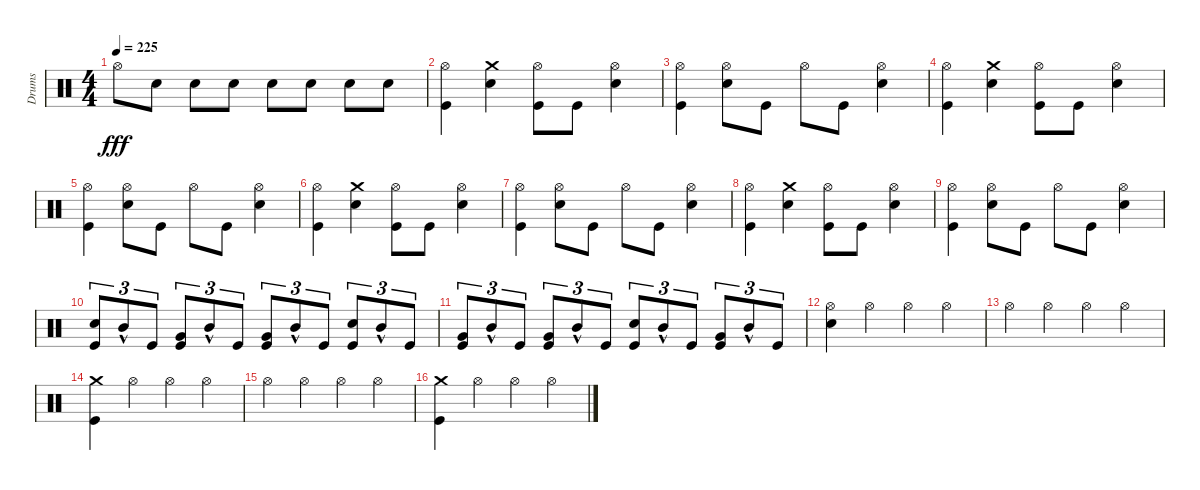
\track ("Drums" "Drums") {instrument percussion}
\staff {score}
\articulation defaults
\ts (4 4)
\tempo 225
\clef neutral
\ks c "Hi-Hat (open)".8{dy fff} "Snare (hit) 2".8 "Snare (hit) 2".8 "Snare (hit) 2".8 "Snare (hit) 2".8 "Snare (hit) 2".8 "Snare (hit) 2".8 "Snare (hit) 2".8
|
("Kick (hit)" "Hi-Hat (open)").4 ("Snare (hit) 2" "Crash medium (hit)").4 ("Kick (hit)" "Hi-Hat (open)").8 "Kick (hit)".8 ("Snare (hit) 2" "Hi-Hat (open)").4 |
("Kick (hit)" "Hi-Hat (open)").4 ("Hi-Hat (open)" "Snare (hit) 2").8 "Kick (hit)".8 "Hi-Hat (open)".8 "Kick (hit)".8 ("Snare (hit) 2" "Hi-Hat (open)").4 |
("Kick (hit)" "Hi-Hat (open)").4 ("Snare (hit) 2" "Crash medium (hit)").4 ("Kick (hit)" "Hi-Hat (open)").8 "Kick (hit)".8 ("Snare (hit) 2" "Hi-Hat (open)").4 |
("Kick (hit)" "Hi-Hat (open)").4 ("Snare (hit) 2" "Hi-Hat (open)").8 "Kick (hit)".8 "Hi-Hat (open)".8 "Kick (hit)".8 ("Snare (hit) 2" "Hi-Hat (open)").4 |
("Kick (hit)" "Hi-Hat (open)").4 ("Crash medium (hit)" "Snare (hit) 2").4 ("Kick (hit)" "Hi-Hat (open)").8 "Kick (hit)".8 ("Snare (hit) 2" "Hi-Hat (open)").4 |
("Kick (hit)" "Hi-Hat (open)").4 ("Snare (hit) 2" "Hi-Hat (open)").8 "Kick (hit)".8 "Hi-Hat (open)".8 "Kick (hit)".8 ("Snare (hit) 2" "Hi-Hat (open)").4 |
("Kick (hit)" "Hi-Hat (open)").4 ("Snare (hit) 2" "Crash medium (hit)").4 ("Kick (hit)" "Hi-Hat (open)").8 "Kick (hit)".8 ("Snare (hit) 2" "Hi-Hat (open)").4 |
("Kick (hit)" "Hi-Hat (open)").4 ("Snare (hit) 2" "Hi-Hat (open)").8 "Kick (hit)".8 "Hi-Hat (open)".8 "Kick (hit)".8 ("Snare (hit) 2" "Hi-Hat (open)").4 |
("Snare (hit) 2" "Kick (hit)").8{tu (3 2)} "Mid Tom (hit)"{hac}.8{tu (3 2)} "Kick (hit)".8{tu (3 2)} ("Very Low Tom (hit)" "Kick (hit)").8{tu (3 2)} "Mid Tom (hit)"{hac}.8{tu (3 2)} "Kick (hit)".8{tu (3 2)} ("Very Low Tom (hit)" "Kick (hit)").8{tu (3 2)} "Mid Tom (hit)"{hac}.8{tu (3 2)} "Kick (hit)".8{tu (3 2)} ("Snare (hit) 2" "Kick (hit)").8{tu (3 2)} "Mid Tom (hit)"{hac}.8{tu (3 2)} "Kick (hit)".8{tu (3 2)} |
("Very Low Tom (hit)" "Kick (hit)").8{tu (3 2)} "Mid Tom (hit)"{hac}.8{tu (3 2)} "Kick (hit)".8{tu (3 2)} ("Very Low Tom (hit)" "Kick (hit)").8{tu (3 2)} "Mid Tom (hit)"{hac}.8{tu (3 2)} "Kick (hit)".8{tu (3 2)} ("Snare (hit) 2" "Kick (hit)").8{tu (3 2)} "Mid Tom (hit)"{hac}.8{tu (3 2)} "Kick (hit)".8{tu (3 2)} ("Very Low Tom (hit)" "Kick (hit)").8{tu (3 2)} "Mid Tom (hit)"{hac}.8{tu (3 2)} "Kick (hit)".8{tu (3 2)} |
("Snare (hit) 2" "Hi-Hat (open)").4 "Hi-Hat (open)".4 "Hi-Hat (open)".4 "Hi-Hat (open)".4 |
"Hi-Hat (open)".4 "Hi-Hat (open)".4 "Hi-Hat (open)".4 "Hi-Hat (open)".4 |
("Crash medium (hit)" "Kick (hit)").4 "Hi-Hat (open)".4 "Hi-Hat (open)".4 "Hi-Hat (open)".4 |
"Hi-Hat (open)".4 "Hi-Hat (open)".4 "Hi-Hat (open)".4 "Hi-Hat (open)".4 |
("Crash medium (hit)" "Kick (hit)").4 "Hi-Hat (open)".4 "Hi-Hat (open)".4 "Hi-Hat (open)".4
